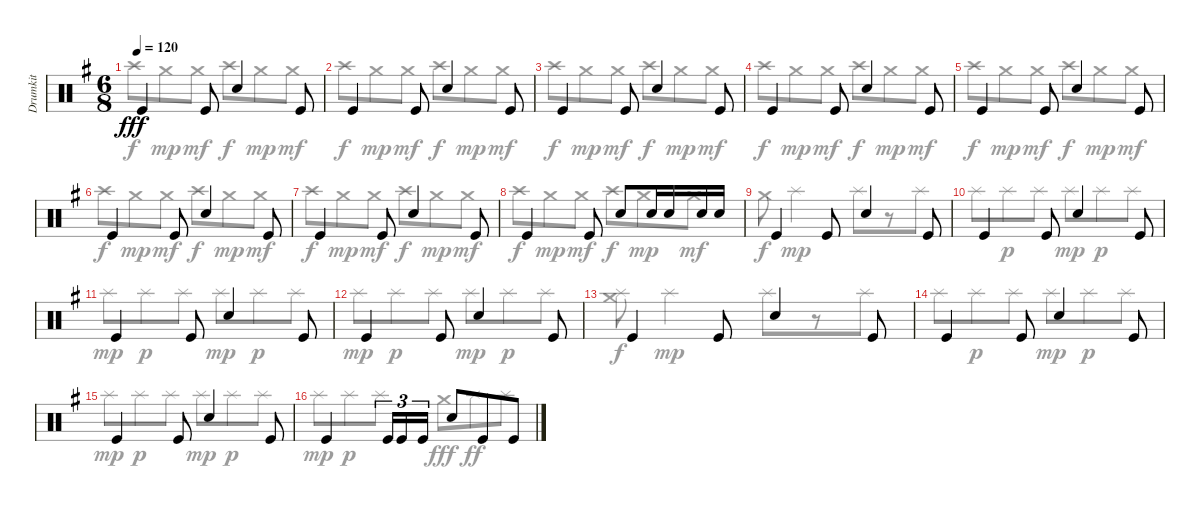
\track ("Drumkit" "Drumkit") {instrument percussion}
\staff {score}
\articulation defaults
\voice
\ts (6 8)
\tempo 120
\clef neutral
\ks eminor "Kick (hit)".4{dy fff} "Kick (hit)".8 "Snare (hit) 2".4 "Kick (hit)".8
|
"Kick (hit)".4 "Kick (hit)".8 "Snare (hit) 2".4 "Kick (hit)".8 |
"Kick (hit)".4 "Kick (hit)".8 "Snare (hit) 2".4 "Kick (hit)".8 |
"Kick (hit)".4 "Kick (hit)".8 "Snare (hit) 2".4 "Kick (hit)".8 |
"Kick (hit)".4 "Kick (hit)".8 "Snare (hit) 2".4 "Kick (hit)".8 |
"Kick (hit)".4 "Kick (hit)".8 "Snare (hit) 2".4 "Kick (hit)".8 |
"Kick (hit)".4 "Kick (hit)".8 "Snare (hit) 2".4 "Kick (hit)".8 |
"Kick (hit)".4 "Kick (hit)".8 "Snare (hit) 2".8 "Snare (hit) 2".16 "Snare (hit) 2".16 "Snare (hit) 2".16 "Snare (hit) 2".16 |
"Kick (hit)".4 "Kick (hit)".8 "Snare (hit) 2".4 "Kick (hit)".8 |
"Kick (hit)".4 "Kick (hit)".8 "Snare (hit) 2".4 "Kick (hit)".8 |
"Kick (hit)".4 "Kick (hit)".8 "Snare (hit) 2".4 "Kick (hit)".8 |
"Kick (hit)".4 "Kick (hit)".8 "Snare (hit) 2".4 "Kick (hit)".8 |
"Kick (hit)".4 "Kick (hit)".8 "Snare (hit) 2".4 "Kick (hit)".8 |
"Kick (hit)".4 "Kick (hit)".8 "Snare (hit) 2".4 "Kick (hit)".8 |
"Kick (hit)".4 "Kick (hit)".8 "Snare (hit) 2".4 "Kick (hit)".8 |
"Kick (hit)".4 "Kick (hit)".16{tu (3 2)} "Kick (hit)".16{tu (3 2)} "Kick (hit)".16{tu (3 2)} "Snare (hit) 2".8 "Kick (hit)".8 "Kick (hit)".8
\voice
\clef neutral
\ottava regular
\simile none
\ks eminor "Crash high (hit)".8{dy f} "Crash medium (hit)".8{dy mp} "Crash medium (hit)".8{dy mf} "Crash high (hit)".8{dy f} "Crash medium (hit)".8{dy mp} "Crash medium (hit)".8{dy mf}
|
"Crash high (hit)".8{dy f} "Crash medium (hit)".8{dy mp} "Crash medium (hit)".8{dy mf} "Crash high (hit)".8{dy f} "Crash medium (hit)".8{dy mp} "Crash medium (hit)".8{dy mf} |
"Crash high (hit)".8{dy f} "Crash medium (hit)".8{dy mp} "Crash medium (hit)".8{dy mf} "Crash high (hit)".8{dy f} "Crash medium (hit)".8{dy mp} "Crash medium (hit)".8{dy mf} |
"Crash high (hit)".8{dy f} "Crash medium (hit)".8{dy mp} "Crash medium (hit)".8{dy mf} "Crash high (hit)".8{dy f} "Crash medium (hit)".8{dy mp} "Crash medium (hit)".8{dy mf} |
"Crash high (hit)".8{dy f} "Crash medium (hit)".8{dy mp} "Crash medium (hit)".8{dy mf} "Crash high (hit)".8{dy f} "Crash medium (hit)".8{dy mp} "Crash medium (hit)".8{dy mf} |
"Crash high (hit)".8{dy f} "Crash medium (hit)".8{dy mp} "Crash medium (hit)".8{dy mf} "Crash high (hit)".8{dy f} "Crash medium (hit)".8{dy mp} "Crash medium (hit)".8{dy mf} |
"Crash high (hit)".8{dy f} "Crash medium (hit)".8{dy mp} "Crash medium (hit)".8{dy mf} "Crash high (hit)".8{dy f} "Crash medium (hit)".8{dy mp} "Crash medium (hit)".8{dy mf} |
"Crash high (hit)".8{dy f} "Crash medium (hit)".8{dy mp} "Crash medium (hit)".8{dy mf} "Crash high (hit)".8{dy f} "Crash medium (hit)".8{dy mp} "Crash medium (hit)".8{dy mf} |
"Crash medium (hit)".8{dy f} "Splash (hit)".4{dy mp} "Splash (hit)".8 r.8 "Splash (hit)".8 |
"Splash (hit)".8 "Splash (hit)".8{dy p} "Splash (hit)".8 "Splash (hit)".8{dy mp} "Splash (hit)".8{dy p} "Splash (hit)".8 |
"Splash (hit)".8{dy mp} "Splash (hit)".8{dy p} "Splash (hit)".8 "Splash (hit)".8{dy mp} "Splash (hit)".8{dy p} "Splash (hit)".8 |
"Splash (hit)".8{dy mp} "Splash (hit)".8{dy p} "Splash (hit)".8 "Splash (hit)".8{dy mp} "Splash (hit)".8{dy p} "Splash (hit)".8 |
("Crash medium (hit)" "Splash (hit)").8{dy f} "Splash (hit)".4{dy mp} "Splash (hit)".8 r.8 "Splash (hit)".8 |
"Splash (hit)".8 "Splash (hit)".8{dy p} "Splash (hit)".8 "Splash (hit)".8{dy mp} "Splash (hit)".8{dy p} "Splash (hit)".8 |
"Splash (hit)".8{dy mp} "Splash (hit)".8{dy p} "Splash (hit)".8 "Splash (hit)".8{dy mp} "Splash (hit)".8{dy p} "Splash (hit)".8 |
"Splash (hit)".8{dy mp} "Splash (hit)".8{dy p} "Splash (hit)".8 "Crash medium (hit)".8{dy fff} "Splash (hit)".8{dy ff} "Splash (hit)".8
